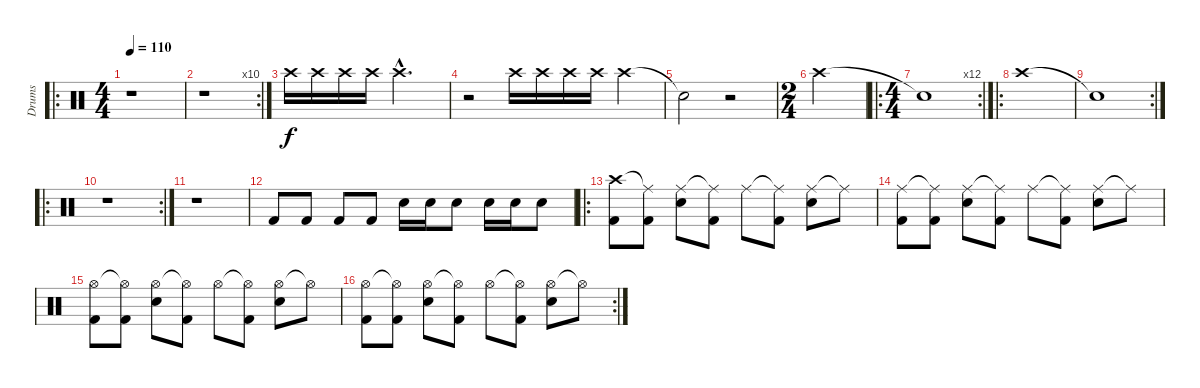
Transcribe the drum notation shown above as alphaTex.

\track ("Drums" "Drums") {instrument percussion}
\staff {score}
\articulation defaults
\ro
\ts (4 4)
\tempo 110
\clef neutral
\ks c
r.1{dy f} |
\rc 10
r.1 |
"Crash high (hit)".16 "Crash high (hit)".16 "Crash high (hit)".16 "Crash high (hit)".16 "Crash high (hit)"{hac}.2{d} |
r.2 "Crash high (hit)".16 "Crash high (hit)".16 "Crash high (hit)".16 "Crash high (hit)".16 "Crash high (hit)".4 |
"Snare (hit)"{t}.2 r.2 |
\ts (2 4)
"Crash high (hit)".2 |
\ro
\rc 12
\ts (4 4)
"Snare (hit)"{t}.1 |
\ro "Crash high (hit)".1
|
\rc 2 "Snare (hit)"{t}.1
|
\ro
\rc 2
r.1 |
r.1 |
"Kick (hit) 2".8 "Kick (hit) 2".8 "Kick (hit) 2".8 "Kick (hit) 2".8 "Snare (hit) 2".16 "Snare (hit) 2".16 "Snare (hit) 2".8 "Snare (hit) 2".16 "Snare (hit) 2".16 "Snare (hit) 2".8 |
\ro
("Crash high (hit)" "Kick (hit) 2").8 ("Ride (middle)"{t} "Kick (hit) 2").8 ("Ride (middle)" "Snare (hit) 2").8 ("Ride (middle)"{t} "Kick (hit) 2").8 "Ride (middle)".8 ("Ride (middle)"{t} "Kick (hit) 2").8 ("Ride (middle)" "Snare (hit) 2").8 "Ride (middle)"{t}.8 |
("Ride (middle)" "Kick (hit) 2").8 ("Ride (middle)"{t} "Kick (hit) 2").8 ("Ride (middle)" "Snare (hit) 2").8 ("Ride (middle)"{t} "Kick (hit) 2").8 "Ride (middle)".8 ("Ride (middle)"{t} "Kick (hit) 2").8 ("Ride (middle)" "Snare (hit) 2").8 "Ride (middle)"{t}.8 |
("Hi-Hat (open)" "Kick (hit) 2").8 ("Hi-Hat (open)"{t} "Kick (hit) 2").8 ("Hi-Hat (open)" "Snare (hit) 2").8 ("Hi-Hat (open)"{t} "Kick (hit) 2").8 "Hi-Hat (open)".8 ("Hi-Hat (open)"{t} "Kick (hit) 2").8 ("Hi-Hat (open)" "Snare (hit) 2").8 "Hi-Hat (open)"{t}.8 |
\rc 2
("Hi-Hat (open)" "Kick (hit) 2").8 ("Hi-Hat (open)"{t} "Kick (hit) 2").8 ("Hi-Hat (open)" "Snare (hit) 2").8 ("Hi-Hat (open)"{t} "Kick (hit) 2").8 "Hi-Hat (open)".8 ("Hi-Hat (open)"{t} "Kick (hit) 2").8 ("Hi-Hat (open)" "Snare (hit) 2").8 "Hi-Hat (open)"{t}.8
